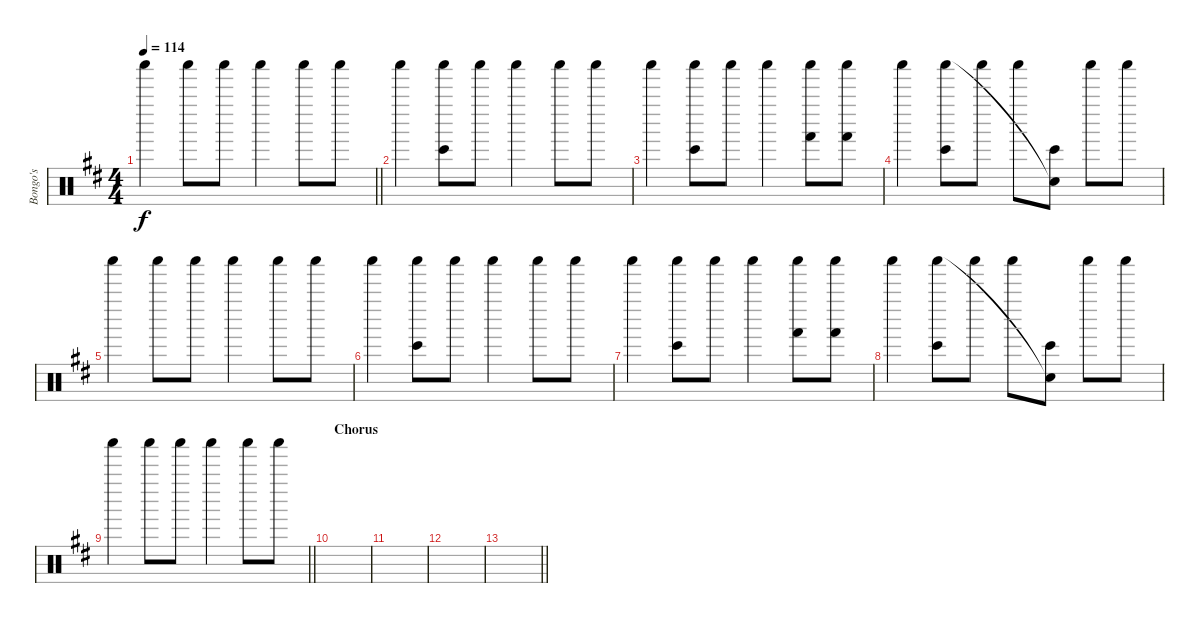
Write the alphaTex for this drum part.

\track ("Bongo's" "Bongo's") {instrument percussion}
\staff {score}
\articulation defaults
\ts (4 4)
\tempo 114
\clef neutral
\barLineRight lightlight
\ks bminor "Shaker (hit)".4{dy f} "Shaker (hit)".8 "Shaker (hit)".8 "Shaker (hit)".4 "Shaker (hit)".8 "Shaker (hit)".8
|
"Shaker (hit)".4 ("Bongo High (hit)" "Shaker (hit)").8 "Shaker (hit)".8 "Shaker (hit)".4 "Shaker (hit)".8 "Shaker (hit)".8 |
"Shaker (hit)".4 ("Bongo High (hit)" "Shaker (hit)").8 "Shaker (hit)".8 "Shaker (hit)".4 ("Hand (hit)" "Shaker (hit)").8 ("Hand (hit)" "Shaker (hit)").8 |
"Shaker (hit)".4 ("Bongo High (hit)" "Shaker (hit)").8 "Shaker (hit)".8 "Shaker (hit)".8 ("Bongo High (hit)" "Snare (hit)"{t}).8 "Shaker (hit)".8 "Shaker (hit)".8 |
"Shaker (hit)".4 "Shaker (hit)".8 "Shaker (hit)".8 "Shaker (hit)".4 "Shaker (hit)".8 "Shaker (hit)".8 |
"Shaker (hit)".4 ("Bongo High (hit)" "Shaker (hit)").8 "Shaker (hit)".8 "Shaker (hit)".4 "Shaker (hit)".8 "Shaker (hit)".8 |
"Shaker (hit)".4 ("Bongo High (hit)" "Shaker (hit)").8 "Shaker (hit)".8 "Shaker (hit)".4 ("Hand (hit)" "Shaker (hit)").8 ("Hand (hit)" "Shaker (hit)").8 |
"Shaker (hit)".4 ("Bongo High (hit)" "Shaker (hit)").8 "Shaker (hit)".8 "Shaker (hit)".8 ("Bongo High (hit)" "Snare (hit)"{t}).8 "Shaker (hit)".8 "Shaker (hit)".8 |
\barLineRight lightlight "Shaker (hit)".4 "Shaker (hit)".8 "Shaker (hit)".8 "Shaker (hit)".4 "Shaker (hit)".8 "Shaker (hit)".8
|
\section ("" "Chorus")
|
|
|
\barLineRight lightlight
